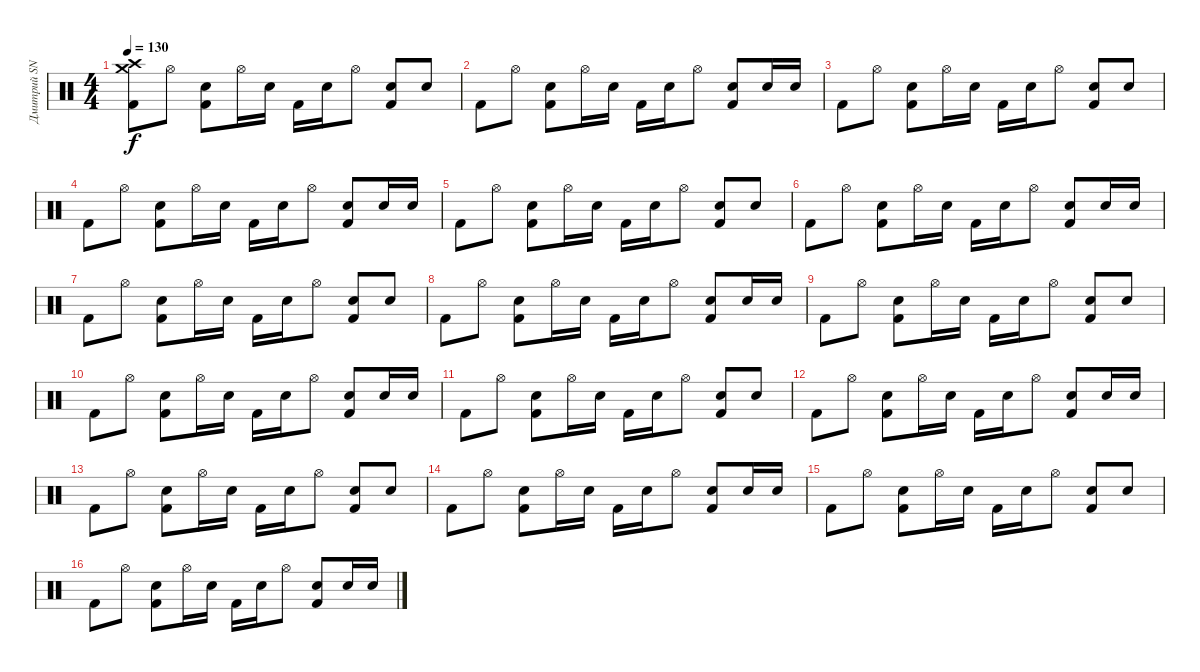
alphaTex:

\track ("Дмитрий SNAKE Хакимов (ударные)" "Дмитрий SN") {instrument percussion}
\staff {score}
\articulation defaults
\ts (4 4)
\tempo 130
\clef neutral
\ks c
("Crash high (hit)" "Crash medium (hit)" "Kick (hit) 2").8{dy f} "Hi-Hat (open)".8 ("Snare (hit) 2" "Kick (hit) 2").8 "Hi-Hat (open)".16 "Electric Snare (hit)".16 "Kick (hit) 2".16 "Electric Snare (hit)".16 "Hi-Hat (open)".8 ("Snare (hit) 2" "Kick (hit) 2").8 "Electric Snare (hit)".8 |
"Kick (hit) 2".8 "Hi-Hat (open)".8 ("Snare (hit) 2" "Kick (hit) 2").8 "Hi-Hat (open)".16 "Electric Snare (hit)".16 "Kick (hit) 2".16 "Electric Snare (hit)".16 "Hi-Hat (open)".8 ("Snare (hit) 2" "Kick (hit) 2").8 "Electric Snare (hit)".16 "Electric Snare (hit)".16 |
"Kick (hit) 2".8 "Hi-Hat (open)".8 ("Snare (hit) 2" "Kick (hit) 2").8 "Hi-Hat (open)".16 "Snare (hit) 2".16 "Kick (hit) 2".16 "Snare (hit) 2".16 "Hi-Hat (open)".8 ("Snare (hit) 2" "Kick (hit) 2").8 "Electric Snare (hit)".8 |
"Kick (hit) 2".8 "Hi-Hat (open)".8 ("Snare (hit) 2" "Kick (hit) 2").8 "Hi-Hat (open)".16 "Snare (hit) 2".16 "Kick (hit) 2".16 "Snare (hit) 2".16 "Hi-Hat (open)".8 ("Snare (hit) 2" "Kick (hit) 2").8 "Electric Snare (hit)".16 "Electric Snare (hit)".16 |
"Kick (hit) 2".8 "Hi-Hat (open)".8 ("Snare (hit) 2" "Kick (hit) 2").8 "Hi-Hat (open)".16 "Electric Snare (hit)".16 "Kick (hit) 2".16 "Electric Snare (hit)".16 "Hi-Hat (open)".8 ("Snare (hit) 2" "Kick (hit) 2").8 "Electric Snare (hit)".8 |
"Kick (hit) 2".8 "Hi-Hat (open)".8 ("Snare (hit) 2" "Kick (hit) 2").8 "Hi-Hat (open)".16 "Electric Snare (hit)".16 "Kick (hit) 2".16 "Electric Snare (hit)".16 "Hi-Hat (open)".8 ("Snare (hit) 2" "Kick (hit) 2").8 "Electric Snare (hit)".16 "Electric Snare (hit)".16 |
"Kick (hit) 2".8 "Hi-Hat (open)".8 ("Snare (hit) 2" "Kick (hit) 2").8 "Hi-Hat (open)".16 "Electric Snare (hit)".16 "Kick (hit) 2".16 "Electric Snare (hit)".16 "Hi-Hat (open)".8 ("Snare (hit) 2" "Kick (hit) 2").8 "Electric Snare (hit)".8 |
"Kick (hit) 2".8 "Hi-Hat (open)".8 ("Snare (hit) 2" "Kick (hit) 2").8 "Hi-Hat (open)".16 "Electric Snare (hit)".16 "Kick (hit) 2".16 "Electric Snare (hit)".16 "Hi-Hat (open)".8 ("Snare (hit) 2" "Kick (hit) 2").8 "Electric Snare (hit)".16 "Electric Snare (hit)".16 |
"Kick (hit) 2".8 "Hi-Hat (open)".8 ("Snare (hit) 2" "Kick (hit) 2").8 "Hi-Hat (open)".16 "Electric Snare (hit)".16 "Kick (hit) 2".16 "Electric Snare (hit)".16 "Hi-Hat (open)".8 ("Snare (hit) 2" "Kick (hit) 2").8 "Electric Snare (hit)".8 |
"Kick (hit) 2".8 "Hi-Hat (open)".8 ("Snare (hit) 2" "Kick (hit) 2").8 "Hi-Hat (open)".16 "Electric Snare (hit)".16 "Kick (hit) 2".16 "Electric Snare (hit)".16 "Hi-Hat (open)".8 ("Snare (hit) 2" "Kick (hit) 2").8 "Electric Snare (hit)".16 "Electric Snare (hit)".16 |
"Kick (hit) 2".8 "Hi-Hat (open)".8 ("Snare (hit) 2" "Kick (hit) 2").8 "Hi-Hat (open)".16 "Electric Snare (hit)".16 "Kick (hit) 2".16 "Electric Snare (hit)".16 "Hi-Hat (open)".8 ("Snare (hit) 2" "Kick (hit) 2").8 "Electric Snare (hit)".8 |
"Kick (hit) 2".8 "Hi-Hat (open)".8 ("Snare (hit) 2" "Kick (hit) 2").8 "Hi-Hat (open)".16 "Electric Snare (hit)".16 "Kick (hit) 2".16 "Electric Snare (hit)".16 "Hi-Hat (open)".8 ("Snare (hit) 2" "Kick (hit) 2").8 "Electric Snare (hit)".16 "Electric Snare (hit)".16 |
"Kick (hit) 2".8 "Hi-Hat (open)".8 ("Snare (hit) 2" "Kick (hit) 2").8 "Hi-Hat (open)".16 "Electric Snare (hit)".16 "Kick (hit) 2".16 "Electric Snare (hit)".16 "Hi-Hat (open)".8 ("Snare (hit) 2" "Kick (hit) 2").8 "Electric Snare (hit)".8 |
"Kick (hit) 2".8 "Hi-Hat (open)".8 ("Snare (hit) 2" "Kick (hit) 2").8 "Hi-Hat (open)".16 "Electric Snare (hit)".16 "Kick (hit) 2".16 "Electric Snare (hit)".16 "Hi-Hat (open)".8 ("Snare (hit) 2" "Kick (hit) 2").8 "Electric Snare (hit)".16 "Electric Snare (hit)".16 |
"Kick (hit) 2".8 "Hi-Hat (open)".8 ("Snare (hit) 2" "Kick (hit) 2").8 "Hi-Hat (open)".16 "Electric Snare (hit)".16 "Kick (hit) 2".16 "Electric Snare (hit)".16 "Hi-Hat (open)".8 ("Snare (hit) 2" "Kick (hit) 2").8 "Electric Snare (hit)".8 |
"Kick (hit) 2".8 "Hi-Hat (open)".8 ("Snare (hit) 2" "Kick (hit) 2").8 "Hi-Hat (open)".16 "Electric Snare (hit)".16 "Kick (hit) 2".16 "Electric Snare (hit)".16 "Hi-Hat (open)".8 ("Snare (hit) 2" "Kick (hit) 2").8 "Electric Snare (hit)".16 "Electric Snare (hit)".16
